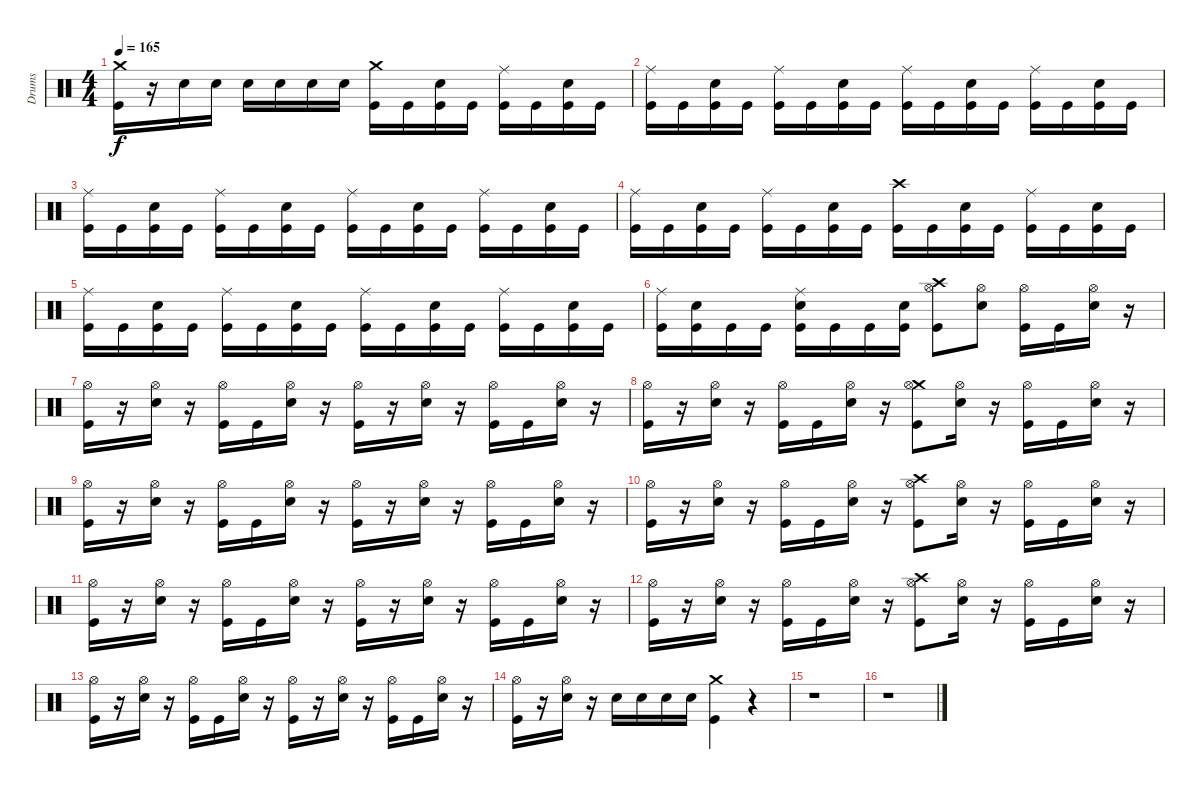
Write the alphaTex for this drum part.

\track ("Drums" "Drums") {instrument percussion}
\staff {score}
\articulation defaults
\ts (4 4)
\tempo 165
\clef neutral
\ks c
("Crash medium (hit)" "Kick (hit)").16{dy f} r.16 "Electric Snare (hit)".16 "Electric Snare (hit)".16 "Electric Snare (hit)".16 "Electric Snare (hit)".16 "Electric Snare (hit)".16 "Electric Snare (hit)".16 ("Crash medium (hit)" "Kick (hit)").16{volume 14 balance 8} "Kick (hit)".16 ("Electric Snare (hit)" "Kick (hit)").16 "Kick (hit)".16 ("Ride (middle)" "Kick (hit)").16 "Kick (hit)".16 ("Electric Snare (hit)" "Kick (hit)").16 "Kick (hit)".16 |
("Ride (middle)" "Kick (hit)").16 "Kick (hit)".16 ("Electric Snare (hit)" "Kick (hit)").16 "Kick (hit)".16 ("Ride (middle)" "Kick (hit)").16 "Kick (hit)".16 ("Electric Snare (hit)" "Kick (hit)").16 "Kick (hit)".16 ("Ride (middle)" "Kick (hit)").16 "Kick (hit)".16 ("Electric Snare (hit)" "Kick (hit)").16 "Kick (hit)".16 ("Ride (middle)" "Kick (hit)").16 "Kick (hit)".16 ("Electric Snare (hit)" "Kick (hit)").16 "Kick (hit)".16 |
("Ride (middle)" "Kick (hit)").16 "Kick (hit)".16 ("Electric Snare (hit)" "Kick (hit)").16 "Kick (hit)".16 ("Ride (middle)" "Kick (hit)").16 "Kick (hit)".16 ("Electric Snare (hit)" "Kick (hit)").16 "Kick (hit)".16 ("Ride (middle)" "Kick (hit)").16 "Kick (hit)".16 ("Electric Snare (hit)" "Kick (hit)").16 "Kick (hit)".16 ("Ride (middle)" "Kick (hit)").16 "Kick (hit)".16 ("Electric Snare (hit)" "Kick (hit)").16 "Kick (hit)".16 |
("Ride (middle)" "Kick (hit)").16 "Kick (hit)".16 ("Electric Snare (hit)" "Kick (hit)").16 "Kick (hit)".16 ("Ride (middle)" "Kick (hit)").16 "Kick (hit)".16 ("Electric Snare (hit)" "Kick (hit)").16 "Kick (hit)".16 ("Crash high (hit)" "Kick (hit)").16 "Kick (hit)".16 ("Electric Snare (hit)" "Kick (hit)").16 "Kick (hit)".16 ("Ride (middle)" "Kick (hit)").16 "Kick (hit)".16 ("Electric Snare (hit)" "Kick (hit)").16 "Kick (hit)".16 |
("Ride (middle)" "Kick (hit)").16 "Kick (hit)".16 ("Electric Snare (hit)" "Kick (hit)").16 "Kick (hit)".16 ("Ride (middle)" "Kick (hit)").16 "Kick (hit)".16 ("Electric Snare (hit)" "Kick (hit)").16 "Kick (hit)".16 ("Ride (middle)" "Kick (hit)").16 "Kick (hit)".16 ("Electric Snare (hit)" "Kick (hit)").16 "Kick (hit)".16 ("Ride (middle)" "Kick (hit)").16 "Kick (hit)".16 ("Electric Snare (hit)" "Kick (hit)").16 "Kick (hit)".16 |
("Ride (middle)" "Kick (hit)").16 ("Kick (hit)" "Electric Snare (hit)").16 "Kick (hit)".16 "Kick (hit)".16 ("Electric Snare (hit)" "Kick (hit)" "Ride (middle)").16 "Kick (hit)".16 "Kick (hit)".16 ("Electric Snare (hit)" "Kick (hit)").16 ("Crash high (hit)" "Hi-Hat (open)" "Kick (hit)").8{volume 14 balance 8} ("Electric Snare (hit)" "Hi-Hat (open)").8 ("Kick (hit)" "Hi-Hat (open)").16 "Kick (hit)".16 ("Electric Snare (hit)" "Hi-Hat (open)").16 r.16 |
("Kick (hit)" "Hi-Hat (open)").16 r.16 ("Electric Snare (hit)" "Hi-Hat (open)").16 r.16 ("Kick (hit)" "Hi-Hat (open)").16 "Kick (hit)".16 ("Electric Snare (hit)" "Hi-Hat (open)").16 r.16 ("Hi-Hat (open)" "Kick (hit)").16 r.16 ("Electric Snare (hit)" "Hi-Hat (open)").16 r.16 ("Kick (hit)" "Hi-Hat (open)").16 "Kick (hit)".16 ("Electric Snare (hit)" "Hi-Hat (open)").16 r.16 |
("Kick (hit)" "Hi-Hat (open)").16 r.16 ("Electric Snare (hit)" "Hi-Hat (open)").16 r.16 ("Kick (hit)" "Hi-Hat (open)").16 "Kick (hit)".16 ("Electric Snare (hit)" "Hi-Hat (open)").16 r.16 ("Crash medium (hit)" "Hi-Hat (open)" "Kick (hit)").8 ("Electric Snare (hit)" "Hi-Hat (open)").16 r.16 ("Kick (hit)" "Hi-Hat (open)").16 "Kick (hit)".16 ("Electric Snare (hit)" "Hi-Hat (open)").16 r.16 |
("Kick (hit)" "Hi-Hat (open)").16 r.16 ("Electric Snare (hit)" "Hi-Hat (open)").16 r.16 ("Kick (hit)" "Hi-Hat (open)").16 "Kick (hit)".16 ("Electric Snare (hit)" "Hi-Hat (open)").16 r.16 ("Hi-Hat (open)" "Kick (hit)").16 r.16 ("Electric Snare (hit)" "Hi-Hat (open)").16 r.16 ("Kick (hit)" "Hi-Hat (open)").16 "Kick (hit)".16 ("Electric Snare (hit)" "Hi-Hat (open)").16 r.16 |
("Kick (hit)" "Hi-Hat (open)").16 r.16 ("Electric Snare (hit)" "Hi-Hat (open)").16 r.16 ("Kick (hit)" "Hi-Hat (open)").16 "Kick (hit)".16 ("Electric Snare (hit)" "Hi-Hat (open)").16 r.16 ("Crash high (hit)" "Hi-Hat (open)" "Kick (hit)").8 ("Electric Snare (hit)" "Hi-Hat (open)").16 r.16 ("Kick (hit)" "Hi-Hat (open)").16 "Kick (hit)".16 ("Electric Snare (hit)" "Hi-Hat (open)").16 r.16 |
("Kick (hit)" "Hi-Hat (open)").16 r.16 ("Electric Snare (hit)" "Hi-Hat (open)").16 r.16 ("Kick (hit)" "Hi-Hat (open)").16 "Kick (hit)".16 ("Electric Snare (hit)" "Hi-Hat (open)").16 r.16 ("Hi-Hat (open)" "Kick (hit)").16 r.16 ("Electric Snare (hit)" "Hi-Hat (open)").16 r.16 ("Kick (hit)" "Hi-Hat (open)").16 "Kick (hit)".16 ("Electric Snare (hit)" "Hi-Hat (open)").16 r.16 |
("Kick (hit)" "Hi-Hat (open)").16 r.16 ("Electric Snare (hit)" "Hi-Hat (open)").16 r.16 ("Kick (hit)" "Hi-Hat (open)").16 "Kick (hit)".16 ("Electric Snare (hit)" "Hi-Hat (open)").16 r.16 ("Crash high (hit)" "Hi-Hat (open)" "Kick (hit)").8 ("Electric Snare (hit)" "Hi-Hat (open)").16 r.16 ("Kick (hit)" "Hi-Hat (open)").16 "Kick (hit)".16 ("Electric Snare (hit)" "Hi-Hat (open)").16 r.16 |
("Kick (hit)" "Hi-Hat (open)").16 r.16 ("Electric Snare (hit)" "Hi-Hat (open)").16 r.16 ("Kick (hit)" "Hi-Hat (open)").16 "Kick (hit)".16 ("Electric Snare (hit)" "Hi-Hat (open)").16 r.16 ("Hi-Hat (open)" "Kick (hit)").16 r.16 ("Electric Snare (hit)" "Hi-Hat (open)").16 r.16 ("Kick (hit)" "Hi-Hat (open)").16 "Kick (hit)".16 ("Electric Snare (hit)" "Hi-Hat (open)").16 r.16 |
("Kick (hit)" "Hi-Hat (open)").16 r.16 ("Hi-Hat (open)" "Electric Snare (hit)").16 r.16 "Electric Snare (hit)".16 "Electric Snare (hit)".16 "Electric Snare (hit)".16 "Electric Snare (hit)".16 ("Crash medium (hit)" "Kick (hit)").4 r.4 |
r.1 |
r.1
